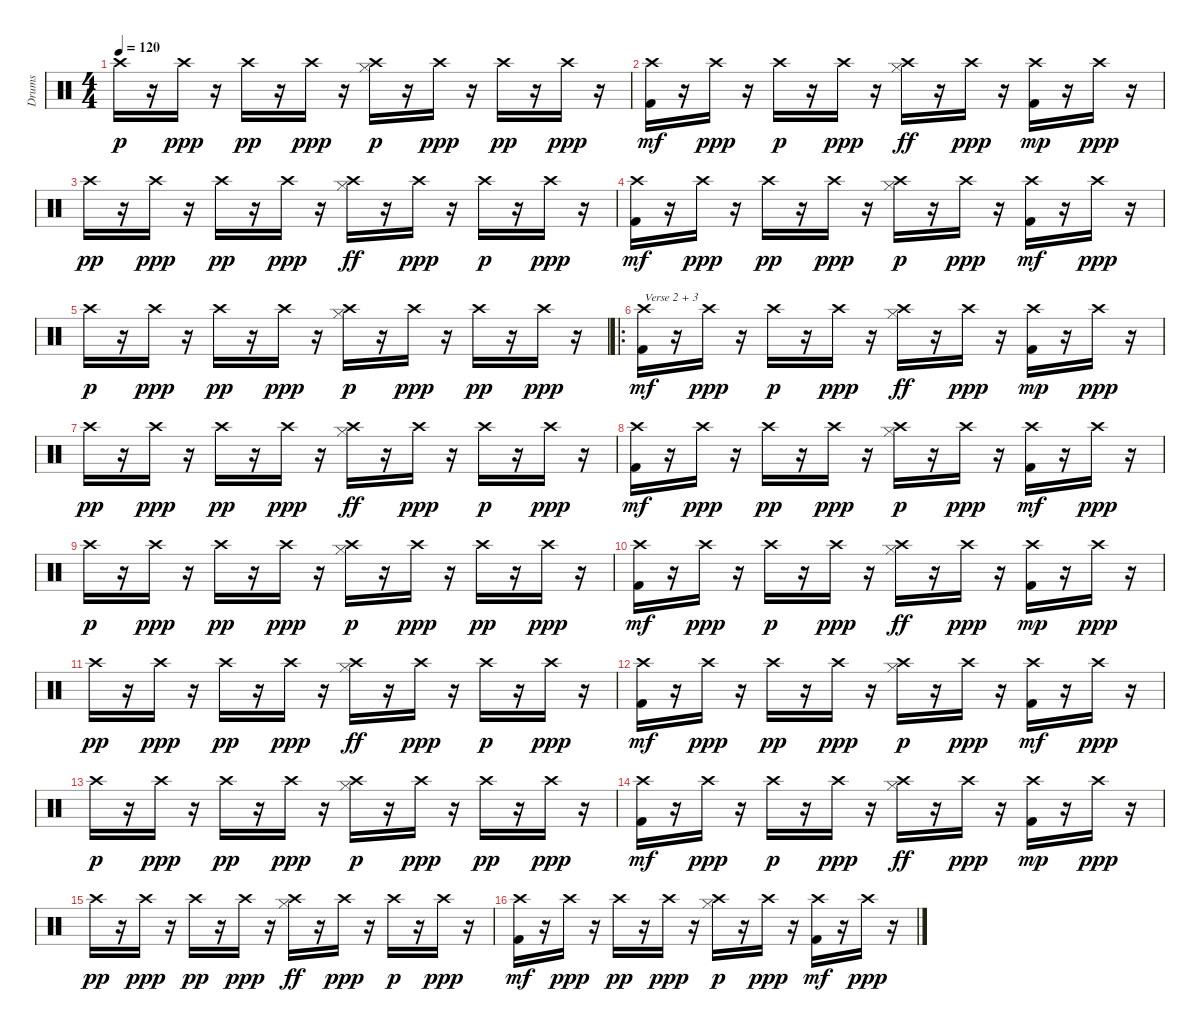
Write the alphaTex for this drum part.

\track ("Drums" "Drums") {instrument percussion}
\staff {score}
\articulation defaults
\ts (4 4)
\tempo 120
\clef neutral
\ks c "Crash high (hit)".16{dy p}
r.16 "Crash high (hit)".16{dy ppp} r.16 "Crash high (hit)".16{dy pp} r.16 "Crash high (hit)".16{dy ppp} r.16 ("Hi-Hat (closed)" "Crash high (hit)").16{dy p} r.16 "Crash high (hit)".16{dy ppp} r.16 "Crash high (hit)".16{dy pp} r.16 "Crash high (hit)".16{dy ppp} r.16 |
("Crash high (hit)" "Kick (hit) 2").16{dy mf} r.16 "Crash high (hit)".16{dy ppp} r.16 "Crash high (hit)".16{dy p} r.16 "Crash high (hit)".16{dy ppp} r.16 ("Crash high (hit)" "Hi-Hat (closed)").16{dy ff} r.16 "Crash high (hit)".16{dy ppp} r.16 ("Crash high (hit)" "Kick (hit) 2").16{dy mp} r.16 "Crash high (hit)".16{dy ppp} r.16 |
"Crash high (hit)".16{dy pp} r.16 "Crash high (hit)".16{dy ppp} r.16 "Crash high (hit)".16{dy pp} r.16 "Crash high (hit)".16{dy ppp} r.16 ("Crash high (hit)" "Hi-Hat (closed)").16{dy ff} r.16 "Crash high (hit)".16{dy ppp} r.16 "Crash high (hit)".16{dy p} r.16 "Crash high (hit)".16{dy ppp} r.16 |
("Crash high (hit)" "Kick (hit) 2").16{dy mf} r.16 "Crash high (hit)".16{dy ppp} r.16 "Crash high (hit)".16{dy pp} r.16 "Crash high (hit)".16{dy ppp} r.16 ("Hi-Hat (closed)" "Crash high (hit)").16{dy p} r.16 "Crash high (hit)".16{dy ppp} r.16 ("Crash high (hit)" "Kick (hit) 2").16{dy mf} r.16 "Crash high (hit)".16{dy ppp} r.16 |
"Crash high (hit)".16{dy p} r.16 "Crash high (hit)".16{dy ppp} r.16 "Crash high (hit)".16{dy pp} r.16 "Crash high (hit)".16{dy ppp} r.16 ("Hi-Hat (closed)" "Crash high (hit)").16{dy p} r.16 "Crash high (hit)".16{dy ppp} r.16 "Crash high (hit)".16{dy pp} r.16 "Crash high (hit)".16{dy ppp} r.16 |
\ro
("Crash high (hit)" "Kick (hit) 2").16{txt "Verse 2 + 3" dy mf} r.16 "Crash high (hit)".16{dy ppp} r.16 "Crash high (hit)".16{dy p} r.16 "Crash high (hit)".16{dy ppp} r.16 ("Crash high (hit)" "Hi-Hat (closed)").16{dy ff} r.16 "Crash high (hit)".16{dy ppp} r.16 ("Crash high (hit)" "Kick (hit) 2").16{dy mp} r.16 "Crash high (hit)".16{dy ppp} r.16 |
"Crash high (hit)".16{dy pp} r.16 "Crash high (hit)".16{dy ppp} r.16 "Crash high (hit)".16{dy pp} r.16 "Crash high (hit)".16{dy ppp} r.16 ("Crash high (hit)" "Hi-Hat (closed)").16{dy ff} r.16 "Crash high (hit)".16{dy ppp} r.16 "Crash high (hit)".16{dy p} r.16 "Crash high (hit)".16{dy ppp} r.16 |
("Crash high (hit)" "Kick (hit) 2").16{dy mf} r.16 "Crash high (hit)".16{dy ppp} r.16 "Crash high (hit)".16{dy pp} r.16 "Crash high (hit)".16{dy ppp} r.16 ("Hi-Hat (closed)" "Crash high (hit)").16{dy p} r.16 "Crash high (hit)".16{dy ppp} r.16 ("Crash high (hit)" "Kick (hit) 2").16{dy mf} r.16 "Crash high (hit)".16{dy ppp} r.16 |
"Crash high (hit)".16{dy p} r.16 "Crash high (hit)".16{dy ppp} r.16 "Crash high (hit)".16{dy pp} r.16 "Crash high (hit)".16{dy ppp} r.16 ("Hi-Hat (closed)" "Crash high (hit)").16{dy p} r.16 "Crash high (hit)".16{dy ppp} r.16 "Crash high (hit)".16{dy pp} r.16 "Crash high (hit)".16{dy ppp} r.16 |
("Crash high (hit)" "Kick (hit) 2").16{dy mf} r.16 "Crash high (hit)".16{dy ppp} r.16 "Crash high (hit)".16{dy p} r.16 "Crash high (hit)".16{dy ppp} r.16 ("Crash high (hit)" "Hi-Hat (closed)").16{dy ff} r.16 "Crash high (hit)".16{dy ppp} r.16 ("Crash high (hit)" "Kick (hit) 2").16{dy mp} r.16 "Crash high (hit)".16{dy ppp} r.16 |
"Crash high (hit)".16{dy pp} r.16 "Crash high (hit)".16{dy ppp} r.16 "Crash high (hit)".16{dy pp} r.16 "Crash high (hit)".16{dy ppp} r.16 ("Crash high (hit)" "Hi-Hat (closed)").16{dy ff} r.16 "Crash high (hit)".16{dy ppp} r.16 "Crash high (hit)".16{dy p} r.16 "Crash high (hit)".16{dy ppp} r.16 |
("Crash high (hit)" "Kick (hit) 2").16{dy mf} r.16 "Crash high (hit)".16{dy ppp} r.16 "Crash high (hit)".16{dy pp} r.16 "Crash high (hit)".16{dy ppp} r.16 ("Hi-Hat (closed)" "Crash high (hit)").16{dy p} r.16 "Crash high (hit)".16{dy ppp} r.16 ("Crash high (hit)" "Kick (hit) 2").16{dy mf} r.16 "Crash high (hit)".16{dy ppp} r.16 |
"Crash high (hit)".16{dy p} r.16 "Crash high (hit)".16{dy ppp} r.16 "Crash high (hit)".16{dy pp} r.16 "Crash high (hit)".16{dy ppp} r.16 ("Hi-Hat (closed)" "Crash high (hit)").16{dy p} r.16 "Crash high (hit)".16{dy ppp} r.16 "Crash high (hit)".16{dy pp} r.16 "Crash high (hit)".16{dy ppp} r.16 |
("Crash high (hit)" "Kick (hit) 2").16{dy mf} r.16 "Crash high (hit)".16{dy ppp} r.16 "Crash high (hit)".16{dy p} r.16 "Crash high (hit)".16{dy ppp} r.16 ("Crash high (hit)" "Hi-Hat (closed)").16{dy ff} r.16 "Crash high (hit)".16{dy ppp} r.16 ("Crash high (hit)" "Kick (hit) 2").16{dy mp} r.16 "Crash high (hit)".16{dy ppp} r.16 |
"Crash high (hit)".16{dy pp} r.16 "Crash high (hit)".16{dy ppp} r.16 "Crash high (hit)".16{dy pp} r.16 "Crash high (hit)".16{dy ppp} r.16 ("Crash high (hit)" "Hi-Hat (closed)").16{dy ff} r.16 "Crash high (hit)".16{dy ppp} r.16 "Crash high (hit)".16{dy p} r.16 "Crash high (hit)".16{dy ppp} r.16 |
("Crash high (hit)" "Kick (hit) 2").16{dy mf} r.16 "Crash high (hit)".16{dy ppp} r.16 "Crash high (hit)".16{dy pp} r.16 "Crash high (hit)".16{dy ppp} r.16 ("Hi-Hat (closed)" "Crash high (hit)").16{dy p} r.16 "Crash high (hit)".16{dy ppp} r.16 ("Crash high (hit)" "Kick (hit) 2").16{dy mf} r.16 "Crash high (hit)".16{dy ppp} r.16
